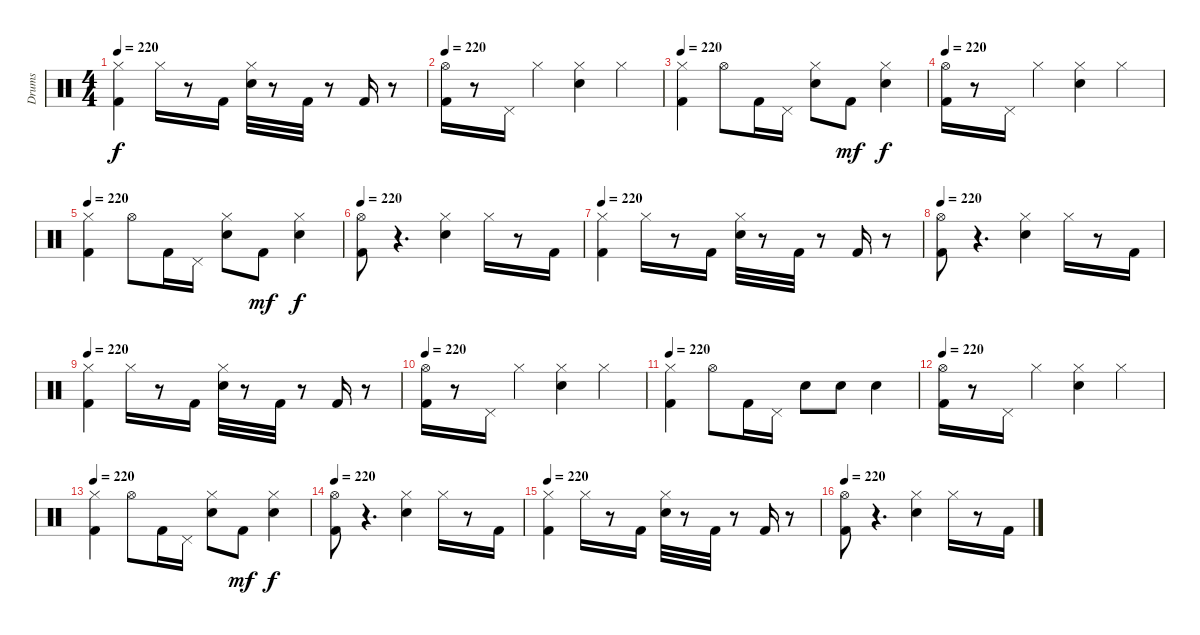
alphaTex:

\track ("Drums" "Drums") {instrument percussion}
\staff {score}
\articulation defaults
\ts (4 4)
\tempo 220
\clef neutral
\ks c
("Kick (hit) 2" "Hi-Hat (closed)").4{dy f} "Hi-Hat (closed)".16 r.8 "Kick (hit) 2".16 ("Snare (hit) 2" "Hi-Hat (closed)").32 r.8 "Kick (hit) 2".32 r.8 "Kick (hit) 2".16 r.8 |
\tempo 220
("Kick (hit) 2" "Hi-Hat (open)").16 r.8 "Pedal Hi-Hat (hit)".16 "Hi-Hat (closed)".4 ("Snare (hit) 2" "Hi-Hat (closed)").4 "Hi-Hat (closed)".4 |
\tempo 220
("Kick (hit) 2" "Hi-Hat (closed)").4 "Hi-Hat (open)".8 "Kick (hit) 2".16 "Pedal Hi-Hat (hit)".16 ("Snare (hit) 2" "Hi-Hat (closed)").8 "Kick (hit) 2".8{dy mf} ("Snare (hit) 2" "Hi-Hat (closed)").4{dy f} |
\tempo 220
("Kick (hit) 2" "Hi-Hat (open)").16 r.8 "Pedal Hi-Hat (hit)".16 "Hi-Hat (closed)".4 ("Snare (hit) 2" "Hi-Hat (closed)").4 "Hi-Hat (closed)".4 |
\tempo 220
("Kick (hit) 2" "Hi-Hat (closed)").4 "Hi-Hat (open)".8 "Kick (hit) 2".16 "Pedal Hi-Hat (hit)".16 ("Snare (hit) 2" "Hi-Hat (closed)").8 "Kick (hit) 2".8{dy mf} ("Snare (hit) 2" "Hi-Hat (closed)").4{dy f} |
\tempo 220
("Kick (hit) 2" "Hi-Hat (open)").8 r.4{d} ("Snare (hit) 2" "Hi-Hat (closed)").4 "Hi-Hat (closed)".16 r.8 "Kick (hit) 2".16 |
\tempo 220
("Kick (hit) 2" "Hi-Hat (closed)").4 "Hi-Hat (closed)".16 r.8 "Kick (hit) 2".16 ("Snare (hit) 2" "Hi-Hat (closed)").32 r.8 "Kick (hit) 2".32 r.8 "Kick (hit) 2".16 r.8 |
\tempo 220
("Kick (hit) 2" "Hi-Hat (open)").8 r.4{d} ("Snare (hit) 2" "Hi-Hat (closed)").4 "Hi-Hat (closed)".16 r.8 "Kick (hit) 2".16 |
\tempo 220
("Kick (hit) 2" "Hi-Hat (closed)").4 "Hi-Hat (closed)".16 r.8 "Kick (hit) 2".16 ("Snare (hit) 2" "Hi-Hat (closed)").32 r.8 "Kick (hit) 2".32 r.8 "Kick (hit) 2".16 r.8 |
\tempo 220
("Kick (hit) 2" "Hi-Hat (open)").16 r.8 "Pedal Hi-Hat (hit)".16 "Hi-Hat (closed)".4 ("Snare (hit) 2" "Hi-Hat (closed)").4 "Hi-Hat (closed)".4 |
\tempo 220
("Kick (hit) 2" "Hi-Hat (closed)").4 "Hi-Hat (open)".8 "Kick (hit) 2".16 "Pedal Hi-Hat (hit)".16 "Snare (hit) 2".8 "Snare (hit) 2".8 "Snare (hit) 2".4 |
\tempo 220
("Kick (hit) 2" "Hi-Hat (open)").16 r.8 "Pedal Hi-Hat (hit)".16 "Hi-Hat (closed)".4 ("Snare (hit) 2" "Hi-Hat (closed)").4 "Hi-Hat (closed)".4 |
\tempo 220
("Kick (hit) 2" "Hi-Hat (closed)").4 "Hi-Hat (open)".8 "Kick (hit) 2".16 "Pedal Hi-Hat (hit)".16 ("Snare (hit) 2" "Hi-Hat (closed)").8 "Kick (hit) 2".8{dy mf} ("Snare (hit) 2" "Hi-Hat (closed)").4{dy f} |
\tempo 220
("Kick (hit) 2" "Hi-Hat (open)").8 r.4{d} ("Snare (hit) 2" "Hi-Hat (closed)").4 "Hi-Hat (closed)".16 r.8 "Kick (hit) 2".16 |
\tempo 220
("Kick (hit) 2" "Hi-Hat (closed)").4 "Hi-Hat (closed)".16 r.8 "Kick (hit) 2".16 ("Snare (hit) 2" "Hi-Hat (closed)").32 r.8 "Kick (hit) 2".32 r.8 "Kick (hit) 2".16 r.8 |
\tempo 220
("Kick (hit) 2" "Hi-Hat (open)").8 r.4{d} ("Snare (hit) 2" "Hi-Hat (closed)").4 "Hi-Hat (closed)".16 r.8 "Kick (hit) 2".16
